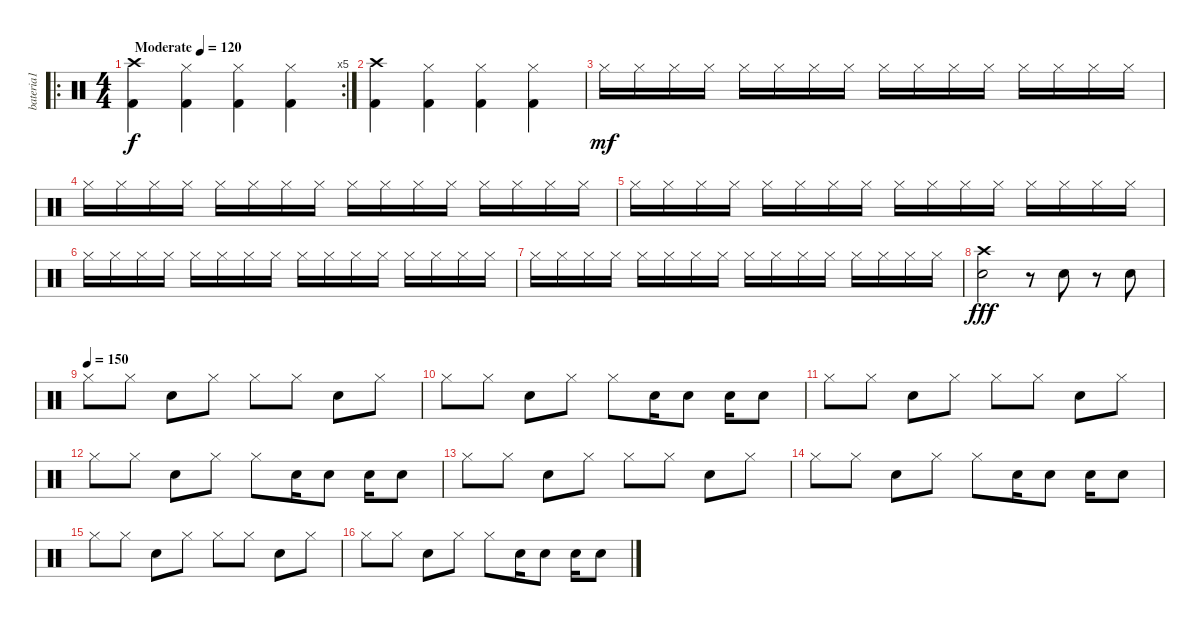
\track ("bateria1" "bateria1") {instrument percussion}
\staff {score}
\articulation defaults
\ro
\rc 5
\ts (4 4)
\tempo (120 "Moderate")
\clef neutral
\ks c
("Kick (hit) 2" "Crash high (hit)").4{dy f} ("Kick (hit) 2" "Hi-Hat (closed)").4 ("Kick (hit) 2" "Hi-Hat (closed)").4 ("Kick (hit) 2" "Hi-Hat (closed)").4 |
("Kick (hit) 2" "Crash high (hit)").4 ("Kick (hit) 2" "Hi-Hat (closed)").4 ("Kick (hit) 2" "Hi-Hat (closed)").4 ("Kick (hit) 2" "Hi-Hat (closed)").4 |
"Hi-Hat (closed)".16{dy mf} "Hi-Hat (closed)".16 "Hi-Hat (closed)".16 "Hi-Hat (closed)".16 "Hi-Hat (closed)".16 "Hi-Hat (closed)".16 "Hi-Hat (closed)".16 "Hi-Hat (closed)".16 "Hi-Hat (closed)".16 "Hi-Hat (closed)".16 "Hi-Hat (closed)".16 "Hi-Hat (closed)".16 "Hi-Hat (closed)".16 "Hi-Hat (closed)".16 "Hi-Hat (closed)".16 "Hi-Hat (closed)".16 |
"Hi-Hat (closed)".16 "Hi-Hat (closed)".16 "Hi-Hat (closed)".16 "Hi-Hat (closed)".16 "Hi-Hat (closed)".16 "Hi-Hat (closed)".16 "Hi-Hat (closed)".16 "Hi-Hat (closed)".16 "Hi-Hat (closed)".16 "Hi-Hat (closed)".16 "Hi-Hat (closed)".16 "Hi-Hat (closed)".16 "Hi-Hat (closed)".16 "Hi-Hat (closed)".16 "Hi-Hat (closed)".16 "Hi-Hat (closed)".16 |
"Hi-Hat (closed)".16 "Hi-Hat (closed)".16 "Hi-Hat (closed)".16 "Hi-Hat (closed)".16 "Hi-Hat (closed)".16 "Hi-Hat (closed)".16 "Hi-Hat (closed)".16 "Hi-Hat (closed)".16 "Hi-Hat (closed)".16 "Hi-Hat (closed)".16 "Hi-Hat (closed)".16 "Hi-Hat (closed)".16 "Hi-Hat (closed)".16 "Hi-Hat (closed)".16 "Hi-Hat (closed)".16 "Hi-Hat (closed)".16 |
"Hi-Hat (closed)".16 "Hi-Hat (closed)".16 "Hi-Hat (closed)".16 "Hi-Hat (closed)".16 "Hi-Hat (closed)".16 "Hi-Hat (closed)".16 "Hi-Hat (closed)".16 "Hi-Hat (closed)".16 "Hi-Hat (closed)".16 "Hi-Hat (closed)".16 "Hi-Hat (closed)".16 "Hi-Hat (closed)".16 "Hi-Hat (closed)".16 "Hi-Hat (closed)".16 "Hi-Hat (closed)".16 "Hi-Hat (closed)".16 |
"Hi-Hat (closed)".16 "Hi-Hat (closed)".16 "Hi-Hat (closed)".16 "Hi-Hat (closed)".16 "Hi-Hat (closed)".16 "Hi-Hat (closed)".16 "Hi-Hat (closed)".16 "Hi-Hat (closed)".16 "Hi-Hat (closed)".16 "Hi-Hat (closed)".16 "Hi-Hat (closed)".16 "Hi-Hat (closed)".16 "Hi-Hat (closed)".16 "Hi-Hat (closed)".16 "Hi-Hat (closed)".16 "Hi-Hat (closed)".16 |
("Electric Snare (hit)" "Crash high (hit)").2{dy fff} r.8 "Electric Snare (hit)".8 r.8 "Electric Snare (hit)".8 |
\tempo (150)
"Hi-Hat (closed)".8 "Hi-Hat (closed)".8 "Electric Snare (hit)".8 "Hi-Hat (closed)".8 "Hi-Hat (closed)".8 "Hi-Hat (closed)".8 "Electric Snare (hit)".8 "Hi-Hat (closed)".8 |
"Hi-Hat (closed)".8 "Hi-Hat (closed)".8 "Electric Snare (hit)".8 "Hi-Hat (closed)".8 "Hi-Hat (closed)".8 "Electric Snare (hit)".16 "Electric Snare (hit)".8 "Electric Snare (hit)".16 "Electric Snare (hit)".8 |
"Hi-Hat (closed)".8 "Hi-Hat (closed)".8 "Electric Snare (hit)".8 "Hi-Hat (closed)".8 "Hi-Hat (closed)".8 "Hi-Hat (closed)".8 "Electric Snare (hit)".8 "Hi-Hat (closed)".8 |
"Hi-Hat (closed)".8 "Hi-Hat (closed)".8 "Electric Snare (hit)".8 "Hi-Hat (closed)".8 "Hi-Hat (closed)".8 "Electric Snare (hit)".16 "Electric Snare (hit)".8 "Electric Snare (hit)".16 "Electric Snare (hit)".8 |
"Hi-Hat (closed)".8 "Hi-Hat (closed)".8 "Electric Snare (hit)".8 "Hi-Hat (closed)".8 "Hi-Hat (closed)".8 "Hi-Hat (closed)".8 "Electric Snare (hit)".8 "Hi-Hat (closed)".8 |
"Hi-Hat (closed)".8 "Hi-Hat (closed)".8 "Electric Snare (hit)".8 "Hi-Hat (closed)".8 "Hi-Hat (closed)".8 "Electric Snare (hit)".16 "Electric Snare (hit)".8 "Electric Snare (hit)".16 "Electric Snare (hit)".8 |
"Hi-Hat (closed)".8 "Hi-Hat (closed)".8 "Electric Snare (hit)".8 "Hi-Hat (closed)".8 "Hi-Hat (closed)".8 "Hi-Hat (closed)".8 "Electric Snare (hit)".8 "Hi-Hat (closed)".8 |
"Hi-Hat (closed)".8 "Hi-Hat (closed)".8 "Electric Snare (hit)".8 "Hi-Hat (closed)".8 "Hi-Hat (closed)".8 "Electric Snare (hit)".16 "Electric Snare (hit)".8 "Electric Snare (hit)".16 "Electric Snare (hit)".8
